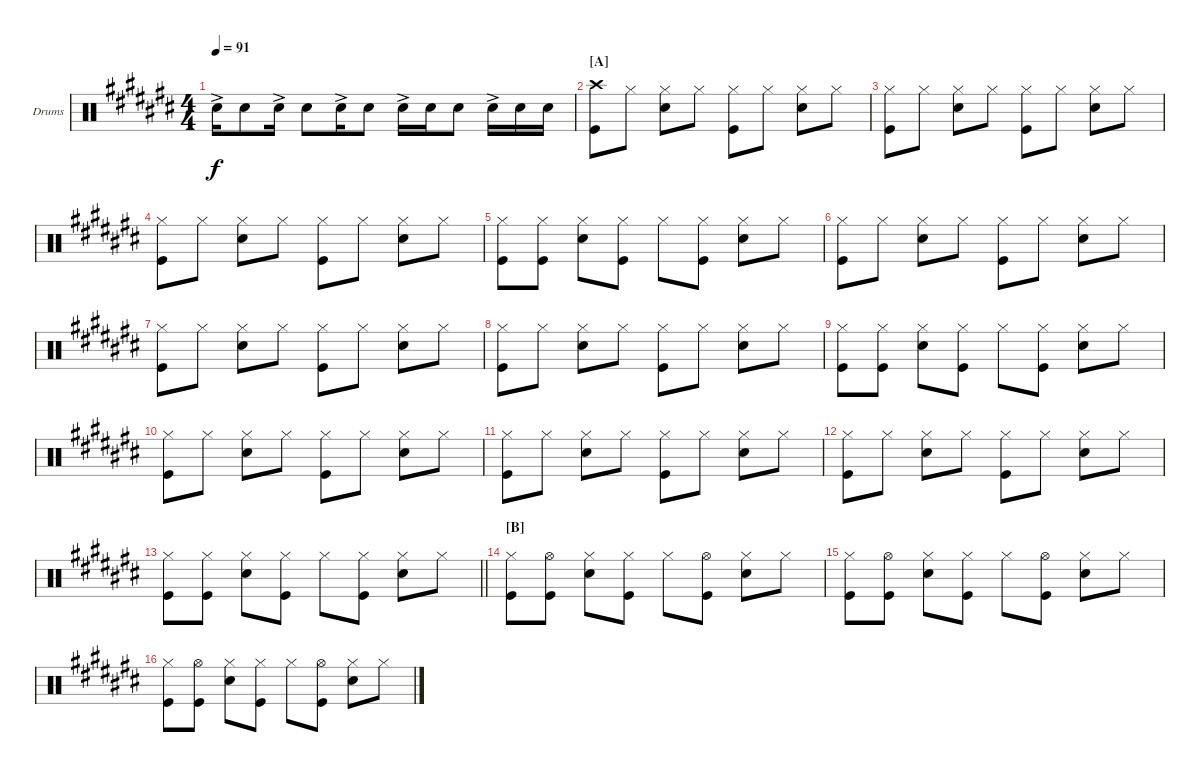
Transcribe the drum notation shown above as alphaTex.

\bracketExtendMode groupsimilarinstruments
\firstSystemTrackNameOrientation horizontal
\otherSystemsTrackNameOrientation horizontal
\track ("Fabrizio Moretti" "Drums") {instrument percussion}
\staff {score}
\articulation defaults
\ts (4 4)
\ac
\tempo 91
\clef neutral
\ks c# "Snare (hit) 2"{ac}.16{dy f} "Snare (hit) 2".8 "Snare (hit) 2"{ac}.16 "Snare (hit) 2".8 "Snare (hit) 2"{ac}.16 "Snare (hit) 2".8 "Snare (hit) 2"{ac}.16 "Snare (hit) 2".16 "Snare (hit) 2".8 "Snare (hit) 2"{ac}.16 "Snare (hit) 2".16 "Snare (hit) 2".16
|
\section ("A" "")
("Crash high (hit)" "Kick (hit)").8 "Hi-Hat (closed)".8 ("Hi-Hat (closed)" "Snare (hit) 2").8 "Hi-Hat (closed)".8 ("Hi-Hat (closed)" "Kick (hit)").8 "Hi-Hat (closed)".8 ("Hi-Hat (closed)" "Snare (hit) 2").8 "Hi-Hat (closed)".8 |
("Hi-Hat (closed)" "Kick (hit)").8 "Hi-Hat (closed)".8 ("Hi-Hat (closed)" "Snare (hit) 2").8 "Hi-Hat (closed)".8 ("Hi-Hat (closed)" "Kick (hit)").8 "Hi-Hat (closed)".8 ("Hi-Hat (closed)" "Snare (hit) 2").8 "Hi-Hat (closed)".8 |
("Hi-Hat (closed)" "Kick (hit)").8 "Hi-Hat (closed)".8 ("Hi-Hat (closed)" "Snare (hit) 2").8 "Hi-Hat (closed)".8 ("Hi-Hat (closed)" "Kick (hit)").8 "Hi-Hat (closed)".8 ("Hi-Hat (closed)" "Snare (hit) 2").8 "Hi-Hat (closed)".8 |
("Hi-Hat (closed)" "Kick (hit)").8 ("Hi-Hat (closed)" "Kick (hit)").8 ("Hi-Hat (closed)" "Snare (hit) 2").8 ("Hi-Hat (closed)" "Kick (hit)").8 "Hi-Hat (closed)".8 ("Hi-Hat (closed)" "Kick (hit)").8 ("Hi-Hat (closed)" "Snare (hit) 2").8 "Hi-Hat (closed)".8 |
("Hi-Hat (closed)" "Kick (hit)").8 "Hi-Hat (closed)".8 ("Hi-Hat (closed)" "Snare (hit) 2").8 "Hi-Hat (closed)".8 ("Hi-Hat (closed)" "Kick (hit)").8 "Hi-Hat (closed)".8 ("Hi-Hat (closed)" "Snare (hit) 2").8 "Hi-Hat (closed)".8 |
("Hi-Hat (closed)" "Kick (hit)").8 "Hi-Hat (closed)".8 ("Hi-Hat (closed)" "Snare (hit) 2").8 "Hi-Hat (closed)".8 ("Hi-Hat (closed)" "Kick (hit)").8 "Hi-Hat (closed)".8 ("Hi-Hat (closed)" "Snare (hit) 2").8 "Hi-Hat (closed)".8 |
("Hi-Hat (closed)" "Kick (hit)").8 "Hi-Hat (closed)".8 ("Hi-Hat (closed)" "Snare (hit) 2").8 "Hi-Hat (closed)".8 ("Hi-Hat (closed)" "Kick (hit)").8 "Hi-Hat (closed)".8 ("Hi-Hat (closed)" "Snare (hit) 2").8 "Hi-Hat (closed)".8 |
("Hi-Hat (closed)" "Kick (hit)").8 ("Hi-Hat (closed)" "Kick (hit)").8 ("Hi-Hat (closed)" "Snare (hit) 2").8 ("Hi-Hat (closed)" "Kick (hit)").8 "Hi-Hat (closed)".8 ("Hi-Hat (closed)" "Kick (hit)").8 ("Hi-Hat (closed)" "Snare (hit) 2").8 "Hi-Hat (closed)".8 |
("Hi-Hat (closed)" "Kick (hit)").8 "Hi-Hat (closed)".8 ("Hi-Hat (closed)" "Snare (hit) 2").8 "Hi-Hat (closed)".8 ("Hi-Hat (closed)" "Kick (hit)").8 "Hi-Hat (closed)".8 ("Hi-Hat (closed)" "Snare (hit) 2").8 "Hi-Hat (closed)".8 |
("Hi-Hat (closed)" "Kick (hit)").8 "Hi-Hat (closed)".8 ("Hi-Hat (closed)" "Snare (hit) 2").8 "Hi-Hat (closed)".8 ("Hi-Hat (closed)" "Kick (hit)").8 "Hi-Hat (closed)".8 ("Hi-Hat (closed)" "Snare (hit) 2").8 "Hi-Hat (closed)".8 |
("Hi-Hat (closed)" "Kick (hit)").8 "Hi-Hat (closed)".8 ("Hi-Hat (closed)" "Snare (hit) 2").8 "Hi-Hat (closed)".8 ("Hi-Hat (closed)" "Kick (hit)").8 "Hi-Hat (closed)".8 ("Hi-Hat (closed)" "Snare (hit) 2").8 "Hi-Hat (closed)".8 |
\barLineRight lightlight
("Hi-Hat (closed)" "Kick (hit)").8 ("Hi-Hat (closed)" "Kick (hit)").8 ("Hi-Hat (closed)" "Snare (hit) 2").8 ("Hi-Hat (closed)" "Kick (hit)").8 "Hi-Hat (closed)".8 ("Hi-Hat (closed)" "Kick (hit)").8 ("Hi-Hat (closed)" "Snare (hit) 2").8 "Hi-Hat (closed)".8 |
\section ("B" "")
("Hi-Hat (closed)" "Kick (hit)").8 ("Hi-Hat (open)" "Kick (hit)").8 ("Snare (hit) 2" "Hi-Hat (closed)").8 ("Hi-Hat (closed)" "Kick (hit)").8 "Hi-Hat (closed)".8 ("Hi-Hat (open)" "Kick (hit)").8 ("Snare (hit) 2" "Hi-Hat (closed)").8 "Hi-Hat (closed)".8 |
("Hi-Hat (closed)" "Kick (hit)").8 ("Hi-Hat (open)" "Kick (hit)").8 ("Snare (hit) 2" "Hi-Hat (closed)").8 ("Hi-Hat (closed)" "Kick (hit)").8 "Hi-Hat (closed)".8 ("Hi-Hat (open)" "Kick (hit)").8 ("Snare (hit) 2" "Hi-Hat (closed)").8 "Hi-Hat (closed)".8 |
("Hi-Hat (closed)" "Kick (hit)").8 ("Hi-Hat (open)" "Kick (hit)").8 ("Snare (hit) 2" "Hi-Hat (closed)").8 ("Hi-Hat (closed)" "Kick (hit)").8 "Hi-Hat (closed)".8 ("Hi-Hat (open)" "Kick (hit)").8 ("Snare (hit) 2" "Hi-Hat (closed)").8 "Hi-Hat (closed)".8
